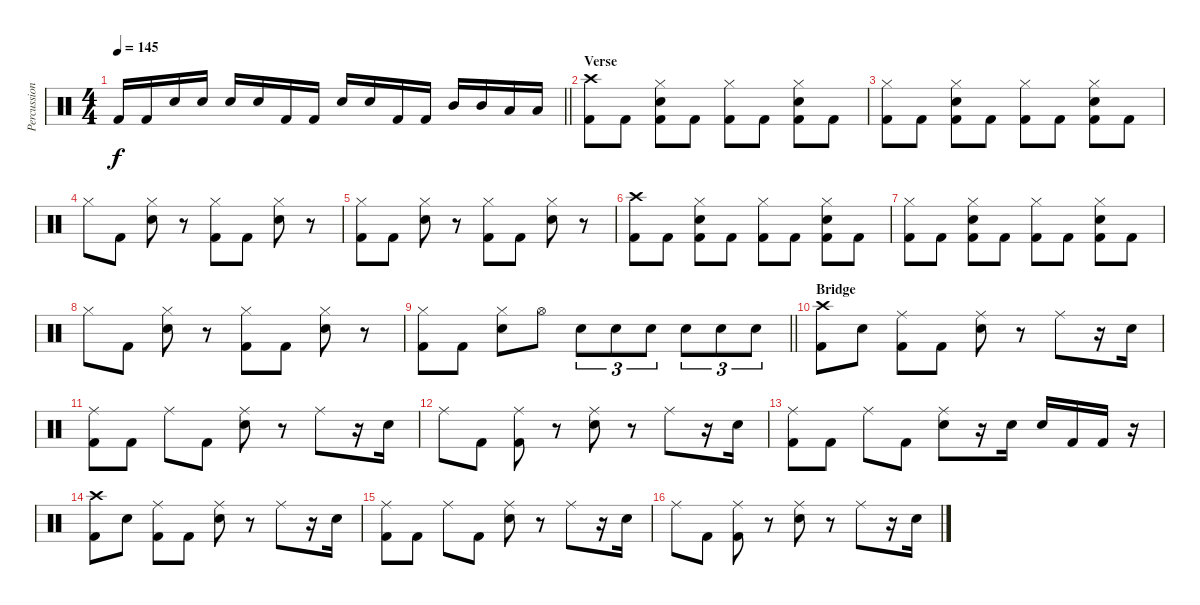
\track ("Percussion" "Percussion") {instrument percussion}
\staff {score}
\articulation defaults
\ts (4 4)
\tempo 145
\clef neutral
\barLineRight lightlight
\ks c "Kick (hit) 2".16{dy f} "Kick (hit) 2".16 "Snare (hit) 2".16 "Snare (hit) 2".16 "Snare (hit) 2".16 "Snare (hit) 2".16 "Kick (hit) 2".16 "Kick (hit) 2".16 "Snare (hit) 2".16 "Snare (hit) 2".16 "Kick (hit) 2".16 "Kick (hit) 2".16 "Mid Tom (hit)".16 "Mid Tom (hit)".16 "Low Tom (hit)".16 "Low Tom (hit)".16
|
\section ("" "Verse")
("Crash high (hit)" "Kick (hit) 2").8 "Kick (hit) 2".8 ("Hi-Hat (closed)" "Snare (hit) 2" "Kick (hit) 2").8 "Kick (hit) 2".8 ("Hi-Hat (closed)" "Kick (hit) 2").8 "Kick (hit) 2".8 ("Hi-Hat (closed)" "Snare (hit) 2" "Kick (hit) 2").8 "Kick (hit) 2".8 |
("Hi-Hat (closed)" "Kick (hit) 2").8 "Kick (hit) 2".8 ("Hi-Hat (closed)" "Snare (hit) 2" "Kick (hit) 2").8 "Kick (hit) 2".8 ("Hi-Hat (closed)" "Kick (hit) 2").8 "Kick (hit) 2".8 ("Hi-Hat (closed)" "Snare (hit) 2" "Kick (hit) 2").8 "Kick (hit) 2".8 |
"Hi-Hat (closed)".8 "Kick (hit) 2".8 ("Hi-Hat (closed)" "Snare (hit) 2").8 r.8 ("Hi-Hat (closed)" "Kick (hit) 2").8 "Kick (hit) 2".8 ("Hi-Hat (closed)" "Snare (hit) 2").8 r.8 |
("Hi-Hat (closed)" "Kick (hit) 2").8 "Kick (hit) 2".8 ("Hi-Hat (closed)" "Snare (hit) 2").8 r.8 ("Hi-Hat (closed)" "Kick (hit) 2").8 "Kick (hit) 2".8 ("Hi-Hat (closed)" "Snare (hit) 2").8 r.8 |
("Crash high (hit)" "Kick (hit) 2").8 "Kick (hit) 2".8 ("Hi-Hat (closed)" "Snare (hit) 2" "Kick (hit) 2").8 "Kick (hit) 2".8 ("Hi-Hat (closed)" "Kick (hit) 2").8 "Kick (hit) 2".8 ("Hi-Hat (closed)" "Snare (hit) 2" "Kick (hit) 2").8 "Kick (hit) 2".8 |
("Hi-Hat (closed)" "Kick (hit) 2").8 "Kick (hit) 2".8 ("Hi-Hat (closed)" "Snare (hit) 2" "Kick (hit) 2").8 "Kick (hit) 2".8 ("Hi-Hat (closed)" "Kick (hit) 2").8 "Kick (hit) 2".8 ("Hi-Hat (closed)" "Snare (hit) 2" "Kick (hit) 2").8 "Kick (hit) 2".8 |
"Hi-Hat (closed)".8 "Kick (hit) 2".8 ("Hi-Hat (closed)" "Snare (hit) 2").8 r.8 ("Hi-Hat (closed)" "Kick (hit) 2").8 "Kick (hit) 2".8 ("Hi-Hat (closed)" "Snare (hit) 2").8 r.8 |
\barLineRight lightlight
("Hi-Hat (closed)" "Kick (hit) 2").8 "Kick (hit) 2".8 ("Hi-Hat (closed)" "Snare (hit) 2").8 "Hi-Hat (open)".8 "Snare (hit) 2".8{tu (3 2)} "Snare (hit) 2".8{tu (3 2)} "Snare (hit) 2".8{tu (3 2)} "Snare (hit) 2".8{tu (3 2)} "Snare (hit) 2".8{tu (3 2)} "Snare (hit) 2".8{tu (3 2)} |
\section ("" "Bridge")
("Crash high (hit)" "Kick (hit) 2").8 "Snare (hit) 2".8 ("Ride (middle)" "Kick (hit) 2").8 "Kick (hit) 2".8 ("Ride (middle)" "Snare (hit) 2").8 r.8 "Ride (middle)".8 r.16 "Snare (hit) 2".16 |
("Ride (middle)" "Kick (hit) 2").8 "Kick (hit) 2".8 "Ride (middle)".8 "Kick (hit) 2".8 ("Ride (middle)" "Snare (hit) 2").8 r.8 "Ride (middle)".8 r.16 "Snare (hit) 2".16 |
"Ride (middle)".8 "Kick (hit) 2".8 ("Ride (middle)" "Kick (hit) 2").8 r.8 ("Ride (middle)" "Snare (hit) 2").8 r.8 "Ride (middle)".8 r.16 "Snare (hit) 2".16 |
("Ride (middle)" "Kick (hit) 2").8 "Kick (hit) 2".8 "Ride (middle)".8 "Kick (hit) 2".8 ("Ride (middle)" "Snare (hit) 2").8 r.16 "Snare (hit) 2".16 "Snare (hit) 2".16 "Kick (hit) 2".16 "Kick (hit) 2".16 r.16 |
("Crash high (hit)" "Kick (hit) 2").8 "Snare (hit) 2".8 ("Ride (middle)" "Kick (hit) 2").8 "Kick (hit) 2".8 ("Ride (middle)" "Snare (hit) 2").8 r.8 "Ride (middle)".8 r.16 "Snare (hit) 2".16 |
("Ride (middle)" "Kick (hit) 2").8 "Kick (hit) 2".8 "Ride (middle)".8 "Kick (hit) 2".8 ("Ride (middle)" "Snare (hit) 2").8 r.8 "Ride (middle)".8 r.16 "Snare (hit) 2".16 |
"Ride (middle)".8 "Kick (hit) 2".8 ("Ride (middle)" "Kick (hit) 2").8 r.8 ("Ride (middle)" "Snare (hit) 2").8 r.8 "Ride (middle)".8 r.16 "Snare (hit) 2".16
